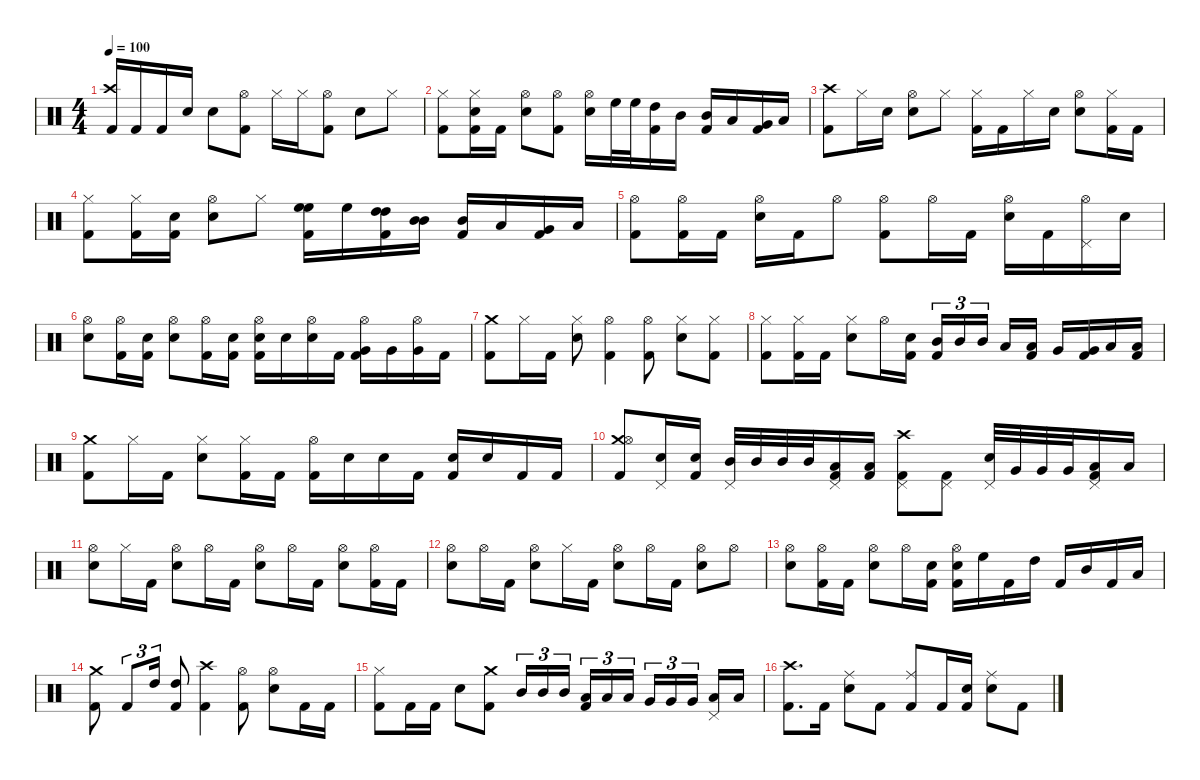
\defaultSystemsLayout 4
\hideDynamics
\bracketExtendMode nobrackets
\singleTrackTrackNamePolicy hidden
\multiTrackTrackNamePolicy hidden
\firstSystemTrackNameMode fullname
\firstSystemTrackNameOrientation horizontal
\otherSystemsTrackNameOrientation horizontal
\track ("Drums" "drm.") {instrument percussion}
\staff {score}
\articulation defaults
\ts (4 4)
\tempo 100
\clef neutral
\ks c
("Crash high (hit)" "Kick (hit) 2").16{dy mp beam Up} "Kick (hit) 2".16{dy f beam Up} "Kick (hit) 2".16{beam Up} "Snare (hit) 2".16{dy mp beam Up} "Snare (hit) 2".8{dy f beam Down} ("Hi-Hat (open)" "Kick (hit) 2").8{dy mp beam Down} "Hi-Hat (closed)".16{beam Down} "Hi-Hat (closed)".16{dy f beam Down} ("Hi-Hat (open)" "Kick (hit) 2").8{dy mp beam Down} "Snare (hit) 2".8{dy f beam Down} "Hi-Hat (closed)".8{dy mp beam Down} |
("Hi-Hat (closed)" "Kick (hit) 2").8{dy f beam Down} ("Hi-Hat (closed)" "Snare (hit) 2" "Kick (hit) 2").16{beam Down} "Kick (hit) 2".16{beam Down} ("Hi-Hat (open)" "Snare (hit) 2").8{dy mf beam Down} ("Kick (hit) 2" "Hi-Hat (open)").8{dy f beam Down} ("Hi-Hat (open)" "Snare (hit) 2").16{beam Down} "High Floor Tom (hit)".32{dy mp beam Down} "High Floor Tom (hit)".32{beam Down} ("Kick (hit) 2" "High Tom (hit)").16{dy f beam Down} "Mid Tom (hit)".16{dy mp beam Down} ("Kick (hit) 2" "Mid Tom (hit)").16{dy f beam Up} "Low Tom (hit)".16{dy mp beam Up} ("Kick (hit) 2" "Very Low Tom (hit)").16{dy f beam Up} "Low Floor Tom (hit)".16{dy mf beam Up} |
("Kick (hit) 2" "Crash high (hit)").8{dy f beam Down} "Hi-Hat (closed)".16{beam Down} "Snare (hit) 2".16{dy p beam Down} ("Hi-Hat (open)" "Snare (hit) 2").8{dy mf beam Down} "Hi-Hat (closed)".8{dy f beam Down} ("Hi-Hat (closed)" "Kick (hit) 2").16{beam Down} "Kick (hit) 2".16{beam Down} "Hi-Hat (closed)".16{beam Down} "Snare (hit) 2".16{dy p beam Down} ("Hi-Hat (open)" "Snare (hit) 2").8{dy mf beam Down} ("Hi-Hat (closed)" "Kick (hit) 2").16{dy f beam Down} "Kick (hit) 2".16{beam Down} |
("Hi-Hat (closed)" "Kick (hit) 2").8{beam Down} ("Hi-Hat (closed)" "Kick (hit) 2").16{dy mp beam Down} ("Kick (hit) 2" "Snare (hit) 2").16{dy f beam Down} ("Hi-Hat (open)" "Snare (hit) 2").8{dy mp beam Down} "Hi-Hat (closed)".8{beam Down} ("High Floor Tom (hit)" "Kick (hit) 2" "High Floor Tom (hit)").16{dy p beam Down} "High Floor Tom (hit)".16{dy mp beam Down} ("High Tom (hit)" "Kick (hit) 2" "High Tom (hit)").16{dy p beam Down} ("Mid Tom (hit)" "Mid Tom (hit)").16{beam Down} ("Kick (hit) 2" "Mid Tom (hit)").16{dy mp beam Up} "Low Tom (hit)".16{beam Up} ("Kick (hit) 2" "Very Low Tom (hit)").16{beam Up} "Low Floor Tom (hit)".16{beam Up} |
("Hi-Hat (open)" "Kick (hit) 2").8{dy mf beam Down} ("Hi-Hat (open)" "Kick (hit) 2").16{beam Down} "Kick (hit) 2".16{dy f beam Down} ("Hi-Hat (open)" "Snare (hit) 2").16{dy mf beam Down} "Kick (hit) 2".16{dy f beam Down} "Hi-Hat (open)".8{dy mp beam Down} ("Kick (hit) 2" "Hi-Hat (open)").8{dy f beam Down} "Hi-Hat (open)".16{dy mp beam Down} "Kick (hit) 2".16{dy f beam Down} ("Snare (hit) 2" "Hi-Hat (open)").16{beam Down} "Kick (hit) 2".16{beam Down} ("Hi-Hat (open)" "Pedal Hi-Hat (hit)").16{dy mp beam Down} "Snare (hit) 2".16{beam Down} |
("Hi-Hat (open)" "Snare (hit) 2").8{beam Down} ("Hi-Hat (open)" "Kick (hit) 2").16{beam Down} ("Snare (hit) 2" "Kick (hit) 2").16{beam Down} ("Hi-Hat (open)" "Snare (hit) 2").8{beam Down} ("Hi-Hat (open)" "Kick (hit) 2").16{beam Down} ("Snare (hit) 2" "Kick (hit) 2").16{beam Down} ("Hi-Hat (open)" "Kick (hit) 2" "Snare (hit) 2").16{dy mf beam Down} "Snare (hit) 2".16{dy f beam Down} ("Hi-Hat (open)" "Snare (hit) 2").16{dy mf beam Down} "Kick (hit) 2".16{dy f beam Down} ("Hi-Hat (open)" "Kick (hit) 2" "Very Low Tom (hit)").16{dy mf beam Down} "Very Low Tom (hit)".16{dy f beam Down} ("Hi-Hat (open)" "Very Low Tom (hit)").16{dy mf beam Down} "Kick (hit) 2".16{dy f beam Down} |
("Crash medium (hit)" "Kick (hit) 2").8{dy mp beam Down} "Hi-Hat (closed)".16{dy mf beam Down} "Kick (hit) 2".16{dy f beam Down} ("Hi-Hat (closed)" "Snare (hit) 2").8{dy mf beam Down} ("Kick (hit) 2" "Hi-Hat (open)").4{dy f beam Down} ("Hi-Hat (open)" "Kick (hit) 2").8{dy mf beam Down} ("Hi-Hat (closed)" "Snare (hit) 2").8{beam Down} ("Hi-Hat (closed)" "Kick (hit) 2").8{beam Down} |
("Hi-Hat (closed)" "Kick (hit) 2").8{dy mp beam Down} ("Hi-Hat (closed)" "Kick (hit) 2").16{beam Down} "Kick (hit) 2".16{dy f beam Down} ("Hi-Hat (closed)" "Snare (hit) 2").8{dy mp beam Down} "Hi-Hat (open)".16{beam Down} ("Kick (hit) 2" "Snare (hit) 2").16{dy f beam Down} ("Kick (hit) 2" "Mid Tom (hit)").16{tu (3 2) beam Up} "Mid Tom (hit)".16{tu (3 2) dy mp beam Up} "Mid Tom (hit)".16{tu (3 2) beam Up} "Low Tom (hit)".16{beam Up} ("Kick (hit) 2" "Low Tom (hit)").16{dy f beam Up} "Very Low Tom (hit)".16{dy mp beam Up} ("Kick (hit) 2" "Very Low Tom (hit)").16{dy f beam Up} "Low Floor Tom (hit)".16{dy mp beam Up} ("Kick (hit) 2" "Low Floor Tom (hit)").16{dy f beam Up} |
("Crash medium (hit)" "Kick (hit) 2").8{dy mp beam Down} "Hi-Hat (closed)".16{beam Down} "Kick (hit) 2".16{dy f beam Down} ("Hi-Hat (closed)" "Snare (hit) 2").8{dy mp beam Down} ("Hi-Hat (closed)" "Kick (hit) 2").16{dy mf beam Down} "Kick (hit) 2".16{beam Down} ("Kick (hit) 2" "Hi-Hat (open)").16{dy f beam Down} "Snare (hit) 2".16{dy mf beam Down} "Snare (hit) 2".16{beam Down} "Kick (hit) 2".16{beam Down} ("Kick (hit) 2" "Snare (hit) 2").16{beam Up} "Snare (hit) 2".16{beam Up} "Kick (hit) 2".16{beam Up} "Kick (hit) 2".16{beam Up} |
("Crash medium (hit)" "Kick (hit) 2" "Hi-Hat (open)").8{beam Up} ("Pedal Hi-Hat (hit)" "Snare (hit) 2").16{beam Up} ("Kick (hit) 2" "Snare (hit) 2").16{beam Up} ("Pedal Hi-Hat (hit)" "Mid Tom (hit)").32{beam Up} "Mid Tom (hit)".32{beam Up} "Mid Tom (hit)".32{beam Up} "Mid Tom (hit)".32{beam Up} ("Pedal Hi-Hat (hit)" "Low Tom (hit)" "Kick (hit) 2").16{beam Up} ("Low Tom (hit)" "Kick (hit) 2").16{beam Up} ("Pedal Hi-Hat (hit)" "Kick (hit) 2" "Crash high (hit)").8{beam Down} ("Pedal Hi-Hat (hit)" "Kick (hit) 2").8{beam Down} ("Pedal Hi-Hat (hit)" "Snare (hit) 2").32{dy mp beam Up} "Very Low Tom (hit)".32{dy mf beam Up} "Very Low Tom (hit)".32{beam Up} "Very Low Tom (hit)".32{beam Up} ("Pedal Hi-Hat (hit)" "Kick (hit) 2" "Low Floor Tom (hit)").16{beam Up} "Low Floor Tom (hit)".16{beam Up} |
("Hi-Hat (open)" "Snare (hit) 2").8{dy mp beam Down} "Hi-Hat (closed)".16{beam Down} "Kick (hit) 2".16{dy f beam Down} ("Hi-Hat (open)" "Snare (hit) 2").8{dy mp beam Down} "Hi-Hat (open)".16{dy p beam Down} "Kick (hit) 2".16{dy f beam Down} ("Hi-Hat (open)" "Snare (hit) 2").8{dy mp beam Down} "Hi-Hat (open)".16{dy p beam Down} "Kick (hit) 2".16{dy f beam Down} ("Hi-Hat (open)" "Snare (hit) 2").8{beam Down} ("Hi-Hat (open)" "Kick (hit) 2").16{dy p beam Down} "Kick (hit) 2".16{dy f beam Down} |
("Hi-Hat (open)" "Snare (hit) 2").8{dy mp beam Down} "Hi-Hat (open)".16{dy p beam Down} "Kick (hit) 2".16{dy f beam Down} ("Hi-Hat (open)" "Snare (hit) 2").8{dy mp beam Down} "Hi-Hat (closed)".16{dy p beam Down} "Kick (hit) 2".16{dy f beam Down} ("Hi-Hat (open)" "Snare (hit) 2").8{dy mp beam Down} "Hi-Hat (open)".16{dy p beam Down} "Kick (hit) 2".16{dy f beam Down} ("Hi-Hat (open)" "Snare (hit) 2").8{dy mp beam Down} "Hi-Hat (open)".8{dy p beam Down} |
("Hi-Hat (open)" "Snare (hit) 2").8{dy mp beam Down} ("Hi-Hat (open)" "Kick (hit) 2").16{dy p beam Down} "Kick (hit) 2".16{dy f beam Down} ("Hi-Hat (open)" "Snare (hit) 2").8{dy mp beam Down} "Hi-Hat (open)".16{dy p beam Down} ("Snare (hit) 2" "Kick (hit) 2").16{beam Down} ("Kick (hit) 2" "Hi-Hat (open)" "Snare (hit) 2").16{dy f beam Down} "High Floor Tom (hit)".16{dy p beam Down} "Kick (hit) 2".16{dy f beam Down} "High Tom (hit)".16{dy p beam Down} "Kick (hit) 2".16{dy f beam Up} "Mid Tom (hit)".16{dy p beam Up} "Kick (hit) 2".16{dy f beam Up} "Low Tom (hit)".16{dy p beam Up} |
("Kick (hit) 2" "Crash medium (hit)").8{dy f beam Down} "Kick (hit) 2".8{tu (3 2) beam Up} "High Tom (hit)".16{tu (3 2) dy mp beam Up} ("Kick (hit) 2" "High Tom (hit)").8{dy f beam Up} ("Crash high (hit)" "Kick (hit) 2").4{dy mf beam Down} ("Kick (hit) 2" "Hi-Hat (open)").8{dy f beam Down} ("Snare (hit) 2" "Hi-Hat (open)").8{beam Down} "Kick (hit) 2".16{beam Down} "Kick (hit) 2".16{beam Down} |
("Kick (hit) 2" "Hi-Hat (closed)").8{beam Down} "Kick (hit) 2".16{beam Down} "Kick (hit) 2".16{beam Down} "Snare (hit) 2".8{beam Down} ("Crash medium (hit)" "Kick (hit) 2").8{dy mf beam Down} "Mid Tom (hit)".16{tu (3 2) beam Up} "Mid Tom (hit)".16{tu (3 2) beam Up} "Mid Tom (hit)".16{tu (3 2) beam Up} ("Kick (hit) 2" "Low Tom (hit)").16{tu (3 2) dy f beam Up} "Low Tom (hit)".16{tu (3 2) dy mp beam Up} "Low Tom (hit)".16{tu (3 2) beam Up} "Very Low Tom (hit)".16{tu (3 2) beam Up} "Very Low Tom (hit)".16{tu (3 2) beam Up} "Very Low Tom (hit)".16{tu (3 2) beam Up} ("Pedal Hi-Hat (hit)" "Low Floor Tom (hit)").16{dy mf beam Up} "Low Floor Tom (hit)".16{dy mp beam Up} |
("Crash high (hit)" "Kick (hit) 2").8{d dy f beam Down} "Kick (hit) 2".16{beam Down} ("Ride (middle)" "Snare (hit) 2").8{beam Down} "Kick (hit) 2".8{beam Down} ("Kick (hit) 2" "Ride (middle)").8{beam Up} "Kick (hit) 2".16{beam Up} ("Kick (hit) 2" "Snare (hit) 2").16{beam Up} ("Ride (middle)" "Snare (hit) 2").8{beam Down} "Kick (hit) 2".8{beam Down}
